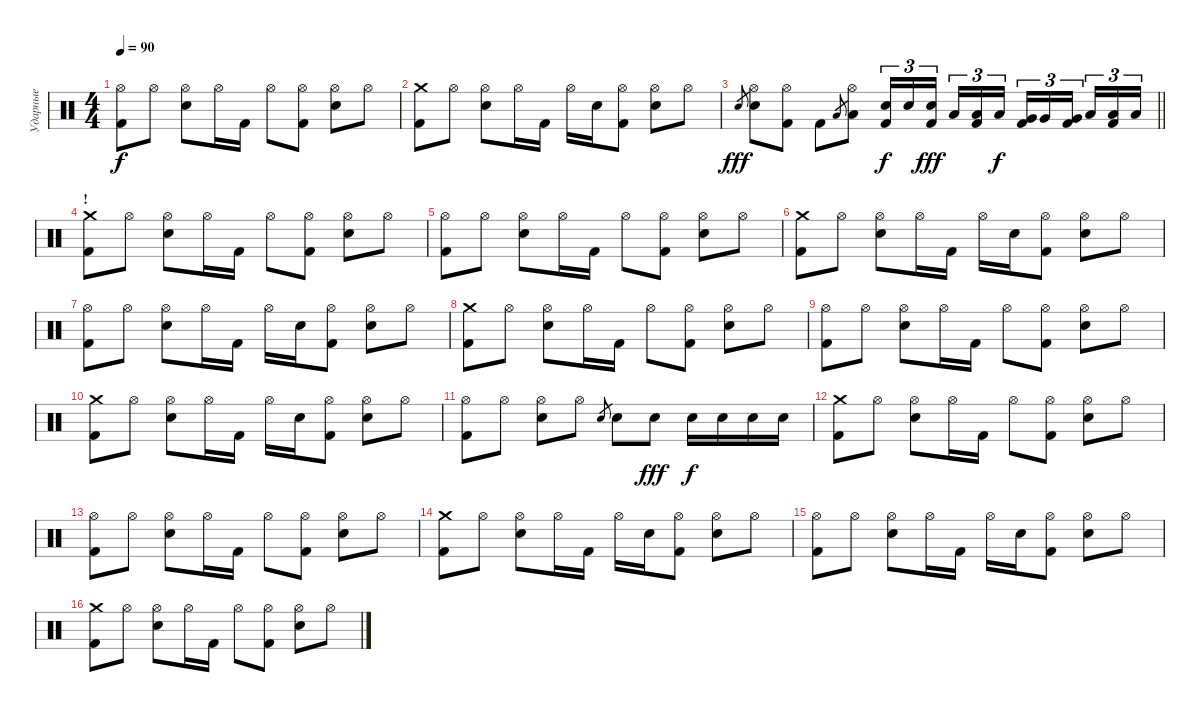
\track ("Ударные" "Ударные") {instrument percussion}
\staff {score}
\articulation defaults
\ts (4 4)
\tempo 90
\clef neutral
\ks c
("Hi-Hat (open)" "Kick (hit) 2").8{dy f} "Hi-Hat (open)".8 ("Hi-Hat (open)" "Snare (hit) 2").8 "Hi-Hat (open)".16 "Kick (hit) 2".16 "Hi-Hat (open)".8 ("Hi-Hat (open)" "Kick (hit) 2").8 ("Hi-Hat (open)" "Snare (hit) 2").8 "Hi-Hat (open)".8 |
("Crash medium (hit)" "Kick (hit) 2").8 "Hi-Hat (open)".8 ("Hi-Hat (open)" "Snare (hit) 2").8 "Hi-Hat (open)".16 "Kick (hit) 2".16 "Hi-Hat (open)".16 "Snare (hit) 2".16 ("Hi-Hat (open)" "Kick (hit) 2").8 ("Hi-Hat (open)" "Snare (hit) 2").8 "Hi-Hat (open)".8 |
\barLineRight lightlight "Snare (hit) 2".8{gr dy fff}
("Hi-Hat (open)" "Snare (hit) 2").8 ("Hi-Hat (open)" "Kick (hit) 2").8 "Kick (hit) 2".8 "Low Tom (hit)".8{gr} ("Hi-Hat (open)" "Low Tom (hit)").8 ("Snare (hit) 2" "Kick (hit) 2").16{tu (3 2) dy f} "Snare (hit) 2".16{tu (3 2)} ("Snare (hit) 2" "Kick (hit) 2").16{tu (3 2) dy fff beam splitsecondary} "Low Tom (hit)".16{tu (3 2)} ("Low Tom (hit)" "Kick (hit) 2").16{tu (3 2)} "Low Tom (hit)".16{tu (3 2) dy f} ("Very Low Tom (hit)" "Kick (hit) 2").16{tu (3 2)} "Very Low Tom (hit)".16{tu (3 2)} ("Very Low Tom (hit)" "Kick (hit) 2").16{tu (3 2) beam splitsecondary} "Low Floor Tom (hit)".16{tu (3 2)} ("Low Floor Tom (hit)" "Kick (hit) 2").16{tu (3 2)} "Low Floor Tom (hit)".16{tu (3 2)} |
\section ("" "!")
("Crash medium (hit)" "Kick (hit) 2").8 "Hi-Hat (open)".8 ("Hi-Hat (open)" "Snare (hit) 2").8 "Hi-Hat (open)".16 "Kick (hit) 2".16 "Hi-Hat (open)".8 ("Hi-Hat (open)" "Kick (hit) 2").8 ("Hi-Hat (open)" "Snare (hit) 2").8 "Hi-Hat (open)".8 |
("Hi-Hat (open)" "Kick (hit) 2").8 "Hi-Hat (open)".8 ("Hi-Hat (open)" "Snare (hit) 2").8 "Hi-Hat (open)".16 "Kick (hit) 2".16 "Hi-Hat (open)".8 ("Hi-Hat (open)" "Kick (hit) 2").8 ("Hi-Hat (open)" "Snare (hit) 2").8 "Hi-Hat (open)".8 |
("Crash medium (hit)" "Kick (hit) 2").8 "Hi-Hat (open)".8 ("Hi-Hat (open)" "Snare (hit) 2").8 "Hi-Hat (open)".16 "Kick (hit) 2".16 "Hi-Hat (open)".16 "Snare (hit) 2".16 ("Hi-Hat (open)" "Kick (hit) 2").8 ("Hi-Hat (open)" "Snare (hit) 2").8 "Hi-Hat (open)".8 |
("Hi-Hat (open)" "Kick (hit) 2").8 "Hi-Hat (open)".8 ("Hi-Hat (open)" "Snare (hit) 2").8 "Hi-Hat (open)".16 "Kick (hit) 2".16 "Hi-Hat (open)".16 "Snare (hit) 2".16 ("Hi-Hat (open)" "Kick (hit) 2").8 ("Hi-Hat (open)" "Snare (hit) 2").8 "Hi-Hat (open)".8 |
("Crash medium (hit)" "Kick (hit) 2").8 "Hi-Hat (open)".8 ("Hi-Hat (open)" "Snare (hit) 2").8 "Hi-Hat (open)".16 "Kick (hit) 2".16 "Hi-Hat (open)".8 ("Hi-Hat (open)" "Kick (hit) 2").8 ("Hi-Hat (open)" "Snare (hit) 2").8 "Hi-Hat (open)".8 |
("Hi-Hat (open)" "Kick (hit) 2").8 "Hi-Hat (open)".8 ("Hi-Hat (open)" "Snare (hit) 2").8 "Hi-Hat (open)".16 "Kick (hit) 2".16 "Hi-Hat (open)".8 ("Hi-Hat (open)" "Kick (hit) 2").8 ("Hi-Hat (open)" "Snare (hit) 2").8 "Hi-Hat (open)".8 |
("Crash medium (hit)" "Kick (hit) 2").8 "Hi-Hat (open)".8 ("Hi-Hat (open)" "Snare (hit) 2").8 "Hi-Hat (open)".16 "Kick (hit) 2".16 "Hi-Hat (open)".16 "Snare (hit) 2".16 ("Hi-Hat (open)" "Kick (hit) 2").8 ("Hi-Hat (open)" "Snare (hit) 2").8 "Hi-Hat (open)".8 |
("Hi-Hat (open)" "Kick (hit) 2").8 "Hi-Hat (open)".8 ("Hi-Hat (open)" "Snare (hit) 2").8 "Hi-Hat (open)".8 "Snare (hit) 2".8{gr} "Snare (hit) 2".8 "Snare (hit) 2".8{dy fff} "Snare (hit) 2".16{dy f} "Snare (hit) 2".16 "Snare (hit) 2".16 "Snare (hit) 2".16 |
("Crash medium (hit)" "Kick (hit) 2").8 "Hi-Hat (open)".8 ("Hi-Hat (open)" "Snare (hit) 2").8 "Hi-Hat (open)".16 "Kick (hit) 2".16 "Hi-Hat (open)".8 ("Hi-Hat (open)" "Kick (hit) 2").8 ("Hi-Hat (open)" "Snare (hit) 2").8 "Hi-Hat (open)".8 |
("Hi-Hat (open)" "Kick (hit) 2").8 "Hi-Hat (open)".8 ("Hi-Hat (open)" "Snare (hit) 2").8 "Hi-Hat (open)".16 "Kick (hit) 2".16 "Hi-Hat (open)".8 ("Hi-Hat (open)" "Kick (hit) 2").8 ("Hi-Hat (open)" "Snare (hit) 2").8 "Hi-Hat (open)".8 |
("Crash medium (hit)" "Kick (hit) 2").8 "Hi-Hat (open)".8 ("Hi-Hat (open)" "Snare (hit) 2").8 "Hi-Hat (open)".16 "Kick (hit) 2".16 "Hi-Hat (open)".16 "Snare (hit) 2".16 ("Hi-Hat (open)" "Kick (hit) 2").8 ("Hi-Hat (open)" "Snare (hit) 2").8 "Hi-Hat (open)".8 |
("Hi-Hat (open)" "Kick (hit) 2").8 "Hi-Hat (open)".8 ("Hi-Hat (open)" "Snare (hit) 2").8 "Hi-Hat (open)".16 "Kick (hit) 2".16 "Hi-Hat (open)".16 "Snare (hit) 2".16 ("Hi-Hat (open)" "Kick (hit) 2").8 ("Hi-Hat (open)" "Snare (hit) 2").8 "Hi-Hat (open)".8 |
("Crash medium (hit)" "Kick (hit) 2").8 "Hi-Hat (open)".8 ("Hi-Hat (open)" "Snare (hit) 2").8 "Hi-Hat (open)".16 "Kick (hit) 2".16 "Hi-Hat (open)".8 ("Hi-Hat (open)" "Kick (hit) 2").8 ("Hi-Hat (open)" "Snare (hit) 2").8 "Hi-Hat (open)".8
